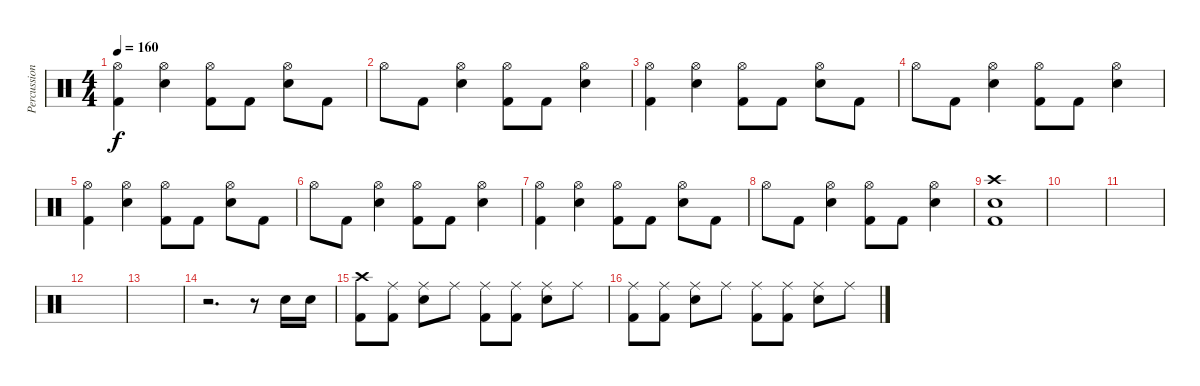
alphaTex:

\track ("Percussion" "Percussion") {instrument percussion}
\staff {score}
\articulation defaults
\ts (4 4)
\tempo 160
\clef neutral
\ks c
("Hi-Hat (open)" "Kick (hit) 2").4{dy f} ("Hi-Hat (open)" "Snare (hit) 2").4 ("Hi-Hat (open)" "Kick (hit) 2").8 "Kick (hit) 2".8 ("Hi-Hat (open)" "Snare (hit) 2").8 "Kick (hit) 2".8 |
"Hi-Hat (open)".8 "Kick (hit) 2".8 ("Hi-Hat (open)" "Snare (hit) 2").4 ("Hi-Hat (open)" "Kick (hit) 2").8 "Kick (hit) 2".8 ("Hi-Hat (open)" "Snare (hit) 2").4 |
("Hi-Hat (open)" "Kick (hit) 2").4 ("Hi-Hat (open)" "Snare (hit) 2").4 ("Hi-Hat (open)" "Kick (hit) 2").8 "Kick (hit) 2".8 ("Hi-Hat (open)" "Snare (hit) 2").8 "Kick (hit) 2".8 |
"Hi-Hat (open)".8 "Kick (hit) 2".8 ("Hi-Hat (open)" "Snare (hit) 2").4 ("Hi-Hat (open)" "Kick (hit) 2").8 "Kick (hit) 2".8 ("Hi-Hat (open)" "Snare (hit) 2").4 |
("Hi-Hat (open)" "Kick (hit) 2").4 ("Hi-Hat (open)" "Snare (hit) 2").4 ("Hi-Hat (open)" "Kick (hit) 2").8 "Kick (hit) 2".8 ("Hi-Hat (open)" "Snare (hit) 2").8 "Kick (hit) 2".8 |
"Hi-Hat (open)".8 "Kick (hit) 2".8 ("Hi-Hat (open)" "Snare (hit) 2").4 ("Hi-Hat (open)" "Kick (hit) 2").8 "Kick (hit) 2".8 ("Hi-Hat (open)" "Snare (hit) 2").4 |
("Hi-Hat (open)" "Kick (hit) 2").4 ("Hi-Hat (open)" "Snare (hit) 2").4 ("Hi-Hat (open)" "Kick (hit) 2").8 "Kick (hit) 2".8 ("Hi-Hat (open)" "Snare (hit) 2").8 "Kick (hit) 2".8 |
"Hi-Hat (open)".8 "Kick (hit) 2".8 ("Hi-Hat (open)" "Snare (hit) 2").4 ("Hi-Hat (open)" "Kick (hit) 2").8 "Kick (hit) 2".8 ("Hi-Hat (open)" "Snare (hit) 2").4 |
("Crash high (hit)" "Snare (hit) 2" "Kick (hit) 2").1 |
|
|
|
|
r.2{d} r.8 "Snare (hit) 2".16 "Snare (hit) 2".16 |
("Crash high (hit)" "Kick (hit) 2").8 ("Ride (middle)" "Kick (hit) 2").8 ("Ride (middle)" "Snare (hit) 2").8 "Ride (middle)".8 ("Ride (middle)" "Kick (hit) 2").8 ("Ride (middle)" "Kick (hit) 2").8 ("Ride (middle)" "Snare (hit) 2").8 "Ride (middle)".8 |
("Ride (middle)" "Kick (hit) 2").8 ("Ride (middle)" "Kick (hit) 2").8 ("Ride (middle)" "Snare (hit) 2").8 "Ride (middle)".8 ("Ride (middle)" "Kick (hit) 2").8 ("Ride (middle)" "Kick (hit) 2").8 ("Ride (middle)" "Snare (hit) 2").8 "Ride (middle)".8
